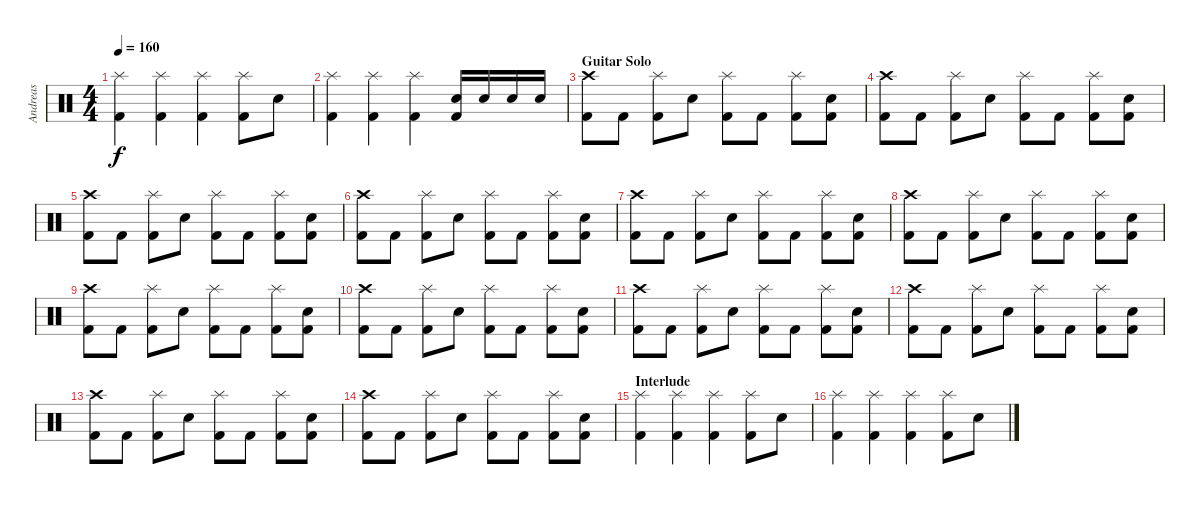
\track ("Andreas" "Andreas") {instrument percussion}
\staff {score}
\articulation defaults
\ts (4 4)
\tempo 160
\clef neutral
\ks c
("Splash (hit)" "Kick (hit) 2").4{dy f} ("Splash (hit)" "Kick (hit) 2").4 ("Splash (hit)" "Kick (hit) 2").4 ("Splash (hit)" "Kick (hit) 2").8 "Snare (hit) 2".8 |
("Splash (hit)" "Kick (hit) 2").4 ("Splash (hit)" "Kick (hit) 2").4 ("Splash (hit)" "Kick (hit) 2").4 ("Snare (hit) 2" "Kick (hit) 2").16 "Snare (hit) 2".16 "Snare (hit) 2".16 "Snare (hit) 2".16 |
\section ("" "Guitar Solo")
("Crash high (hit)" "Kick (hit) 2").8 "Kick (hit) 2".8 ("Splash (hit)" "Kick (hit) 2").8 "Snare (hit) 2".8 ("Splash (hit)" "Kick (hit) 2").8 "Kick (hit) 2".8 ("Splash (hit)" "Kick (hit) 2").8 ("Snare (hit) 2" "Kick (hit) 2").8 |
("Crash high (hit)" "Kick (hit) 2").8 "Kick (hit) 2".8 ("Splash (hit)" "Kick (hit) 2").8 "Snare (hit) 2".8 ("Splash (hit)" "Kick (hit) 2").8 "Kick (hit) 2".8 ("Splash (hit)" "Kick (hit) 2").8 ("Snare (hit) 2" "Kick (hit) 2").8 |
("Crash high (hit)" "Kick (hit) 2").8 "Kick (hit) 2".8 ("Splash (hit)" "Kick (hit) 2").8 "Snare (hit) 2".8 ("Splash (hit)" "Kick (hit) 2").8 "Kick (hit) 2".8 ("Splash (hit)" "Kick (hit) 2").8 ("Snare (hit) 2" "Kick (hit) 2").8 |
("Crash high (hit)" "Kick (hit) 2").8 "Kick (hit) 2".8 ("Splash (hit)" "Kick (hit) 2").8 "Snare (hit) 2".8 ("Splash (hit)" "Kick (hit) 2").8 "Kick (hit) 2".8 ("Splash (hit)" "Kick (hit) 2").8 ("Snare (hit) 2" "Kick (hit) 2").8 |
("Crash high (hit)" "Kick (hit) 2").8 "Kick (hit) 2".8 ("Splash (hit)" "Kick (hit) 2").8 "Snare (hit) 2".8 ("Splash (hit)" "Kick (hit) 2").8 "Kick (hit) 2".8 ("Splash (hit)" "Kick (hit) 2").8 ("Snare (hit) 2" "Kick (hit) 2").8 |
("Crash high (hit)" "Kick (hit) 2").8 "Kick (hit) 2".8 ("Splash (hit)" "Kick (hit) 2").8 "Snare (hit) 2".8 ("Splash (hit)" "Kick (hit) 2").8 "Kick (hit) 2".8 ("Splash (hit)" "Kick (hit) 2").8 ("Snare (hit) 2" "Kick (hit) 2").8 |
("Crash high (hit)" "Kick (hit) 2").8 "Kick (hit) 2".8 ("Splash (hit)" "Kick (hit) 2").8 "Snare (hit) 2".8 ("Splash (hit)" "Kick (hit) 2").8 "Kick (hit) 2".8 ("Splash (hit)" "Kick (hit) 2").8 ("Snare (hit) 2" "Kick (hit) 2").8 |
("Crash high (hit)" "Kick (hit) 2").8 "Kick (hit) 2".8 ("Splash (hit)" "Kick (hit) 2").8 "Snare (hit) 2".8 ("Splash (hit)" "Kick (hit) 2").8 "Kick (hit) 2".8 ("Splash (hit)" "Kick (hit) 2").8 ("Snare (hit) 2" "Kick (hit) 2").8 |
("Crash high (hit)" "Kick (hit) 2").8 "Kick (hit) 2".8 ("Splash (hit)" "Kick (hit) 2").8 "Snare (hit) 2".8 ("Splash (hit)" "Kick (hit) 2").8 "Kick (hit) 2".8 ("Splash (hit)" "Kick (hit) 2").8 ("Snare (hit) 2" "Kick (hit) 2").8 |
("Crash high (hit)" "Kick (hit) 2").8 "Kick (hit) 2".8 ("Splash (hit)" "Kick (hit) 2").8 "Snare (hit) 2".8 ("Splash (hit)" "Kick (hit) 2").8 "Kick (hit) 2".8 ("Splash (hit)" "Kick (hit) 2").8 ("Snare (hit) 2" "Kick (hit) 2").8 |
("Crash high (hit)" "Kick (hit) 2").8 "Kick (hit) 2".8 ("Splash (hit)" "Kick (hit) 2").8 "Snare (hit) 2".8 ("Splash (hit)" "Kick (hit) 2").8 "Kick (hit) 2".8 ("Splash (hit)" "Kick (hit) 2").8 ("Snare (hit) 2" "Kick (hit) 2").8 |
("Crash high (hit)" "Kick (hit) 2").8 "Kick (hit) 2".8 ("Splash (hit)" "Kick (hit) 2").8 "Snare (hit) 2".8 ("Splash (hit)" "Kick (hit) 2").8 "Kick (hit) 2".8 ("Splash (hit)" "Kick (hit) 2").8 ("Snare (hit) 2" "Kick (hit) 2").8 |
\section ("" "Interlude")
("Splash (hit)" "Kick (hit) 2").4 ("Splash (hit)" "Kick (hit) 2").4 ("Splash (hit)" "Kick (hit) 2").4 ("Splash (hit)" "Kick (hit) 2").8 "Snare (hit) 2".8 |
("Splash (hit)" "Kick (hit) 2").4 ("Splash (hit)" "Kick (hit) 2").4 ("Splash (hit)" "Kick (hit) 2").4 ("Splash (hit)" "Kick (hit) 2").8 "Snare (hit) 2".8
